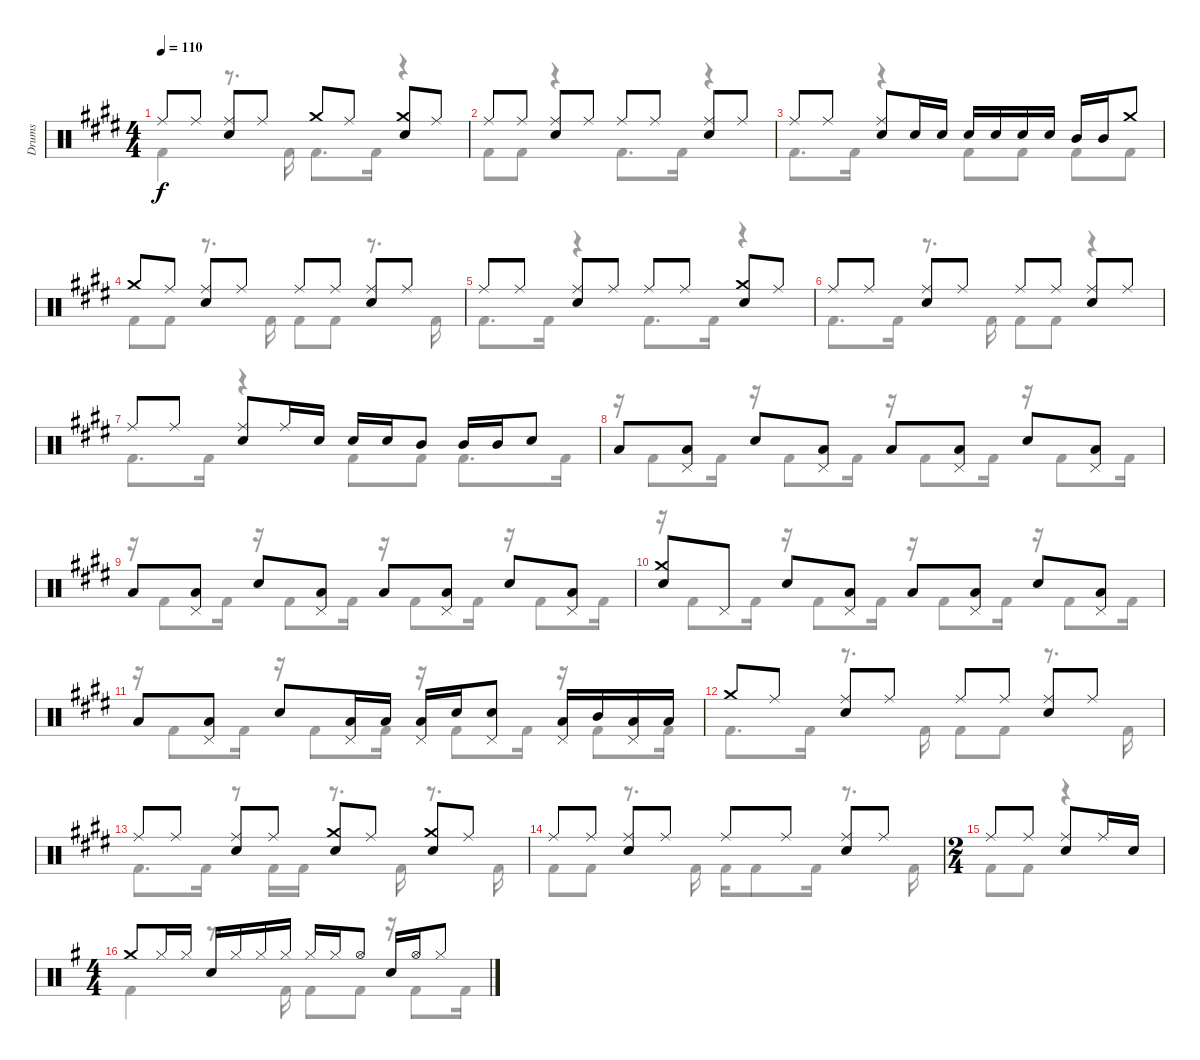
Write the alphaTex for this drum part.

\track ("Drums" "Drums") {instrument percussion}
\staff {score}
\articulation defaults
\voice
\ts (4 4)
\tempo 110
\clef neutral
\ks e "Ride (middle)".8{dy f} "Ride (middle)".8
("Ride (middle)" "Snare (hit) 2").8 "Ride (middle)".8 "Crash medium (hit)".8 "Ride (middle)".8 ("Crash medium (hit)" "Snare (hit) 2").8 "Ride (middle)".8 |
"Ride (middle)".8 "Ride (middle)".8 ("Ride (middle)" "Snare (hit) 2").8 "Ride (middle)".8 "Ride (middle)".8 "Ride (middle)".8 ("Ride (middle)" "Snare (hit) 2").8 "Ride (middle)".8 |
"Ride (middle)".8 "Ride (middle)".8 ("Ride (middle)" "Snare (hit) 2").8 "Snare (hit) 2".16 "Snare (hit) 2".16 "Snare (hit) 2".16 "Snare (hit) 2".16 "Snare (hit) 2".16 "Snare (hit) 2".16 "Mid Tom (hit)".16 "Mid Tom (hit)".16 "Crash medium (hit)".8 |
"Crash medium (hit)".8 "Ride (middle)".8 ("Ride (middle)" "Snare (hit) 2").8 "Ride (middle)".8 "Ride (middle)".8 "Ride (middle)".8 ("Ride (middle)" "Snare (hit) 2").8 "Ride (middle)".8 |
"Ride (middle)".8 "Ride (middle)".8 ("Ride (middle)" "Snare (hit) 2").8 "Ride (middle)".8 "Ride (middle)".8 "Ride (middle)".8 ("Crash medium (hit)" "Snare (hit) 2").8 "Ride (middle)".8 |
"Ride (middle)".8 "Ride (middle)".8 ("Ride (middle)" "Snare (hit) 2").8 "Ride (middle)".8 "Ride (middle)".8 "Ride (middle)".8 ("Ride (middle)" "Snare (hit) 2").8 "Ride (middle)".8 |
"Ride (middle)".8 "Ride (middle)".8 ("Ride (middle)" "Snare (hit) 2").8 "Ride (middle)".16 "Snare (hit) 2".16 "Snare (hit) 2".16 "Snare (hit) 2".16 "Mid Tom (hit)".8 "Mid Tom (hit)".16 "Mid Tom (hit)".16 "Snare (hit) 2".8 |
"Low Tom (hit)".8 ("Low Tom (hit)" "Pedal Hi-Hat (hit)").8 "Snare (hit) 2".8 ("Low Tom (hit)" "Pedal Hi-Hat (hit)").8 "Low Tom (hit)".8 ("Low Tom (hit)" "Pedal Hi-Hat (hit)").8 "Snare (hit) 2".8 ("Low Tom (hit)" "Pedal Hi-Hat (hit)").8 |
"Low Tom (hit)".8 ("Low Tom (hit)" "Pedal Hi-Hat (hit)").8 "Snare (hit) 2".8 ("Low Tom (hit)" "Pedal Hi-Hat (hit)").8 "Low Tom (hit)".8 ("Low Tom (hit)" "Pedal Hi-Hat (hit)").8 "Snare (hit) 2".8 ("Low Tom (hit)" "Pedal Hi-Hat (hit)").8 |
("Crash medium (hit)" "Snare (hit) 2").8 "Pedal Hi-Hat (hit)".8 "Snare (hit) 2".8 ("Low Tom (hit)" "Pedal Hi-Hat (hit)").8 "Low Tom (hit)".8 ("Low Tom (hit)" "Pedal Hi-Hat (hit)").8 "Snare (hit) 2".8 ("Low Tom (hit)" "Pedal Hi-Hat (hit)").8 |
"Low Tom (hit)".8 ("Low Tom (hit)" "Pedal Hi-Hat (hit)").8 "Snare (hit) 2".8 ("Low Tom (hit)" "Pedal Hi-Hat (hit)").16 "Low Tom (hit)".16 ("Low Tom (hit)" "Pedal Hi-Hat (hit)").16 "Snare (hit) 2".16 ("Snare (hit) 2" "Pedal Hi-Hat (hit)").8 ("Low Tom (hit)" "Pedal Hi-Hat (hit)").16 "Mid Tom (hit)".16 ("Low Tom (hit)" "Pedal Hi-Hat (hit)").16 "Low Tom (hit)".16 |
"Crash medium (hit)".8 "Ride (middle)".8 ("Ride (middle)" "Snare (hit) 2").8 "Ride (middle)".8 "Ride (middle)".8 "Ride (middle)".8 ("Ride (middle)" "Snare (hit) 2").8 "Ride (middle)".8 |
"Ride (middle)".8 "Ride (middle)".8 ("Ride (middle)" "Snare (hit) 2").8 "Ride (middle)".8 ("Crash medium (hit)" "Snare (hit) 2").8 "Ride (middle)".8 ("Crash medium (hit)" "Snare (hit) 2").8 "Ride (middle)".8 |
"Ride (middle)".8 "Ride (middle)".8 ("Ride (middle)" "Snare (hit) 2").8 "Ride (middle)".8 "Ride (middle)".8 "Ride (middle)".8 ("Ride (middle)" "Snare (hit) 2").8 "Ride (middle)".8 |
\ts (2 4)
"Ride (middle)".8 "Ride (middle)".8 ("Ride (middle)" "Snare (hit) 2").8 "Ride (middle)".16 "Snare (hit) 2".16 |
\ts (4 4)
\ks g "Crash medium (hit)".8 "Hi-Hat (closed)".16 "Hi-Hat (closed)".16 "Snare (hit) 2".16 "Hi-Hat (closed)".16 "Hi-Hat (closed)".16 "Hi-Hat (closed)".16 "Hi-Hat (closed)".16 "Hi-Hat (closed)".16 "Hi-Hat (open)".8 "Snare (hit) 2".16 "Hi-Hat (open)".16 "Hi-Hat (closed)".8
\voice
\clef neutral
\ottava regular
\simile none
\ks e "Kick (hit) 2".4{dy f}
r.8{d} "Kick (hit) 2".16 "Kick (hit) 2".8{d} "Kick (hit) 2".16 r.4 |
"Kick (hit) 2".8 "Kick (hit) 2".8 r.4 "Kick (hit) 2".8{d} "Kick (hit) 2".16 r.4 |
"Kick (hit) 2".8{d} "Kick (hit) 2".16 r.4 "Kick (hit) 2".8 "Kick (hit) 2".8 "Kick (hit) 2".8 "Kick (hit) 2".8 |
"Kick (hit) 2".8 "Kick (hit) 2".8 r.8{d} "Kick (hit) 2".16 "Kick (hit) 2".8 "Kick (hit) 2".8 r.8{d} "Kick (hit) 2".16 |
"Kick (hit) 2".8{d} "Kick (hit) 2".16 r.4 "Kick (hit) 2".8{d} "Kick (hit) 2".16 r.4 |
"Kick (hit) 2".8{d} "Kick (hit) 2".16 r.8{d} "Kick (hit) 2".16 "Kick (hit) 2".8 "Kick (hit) 2".8 r.4 |
"Kick (hit) 2".8{d} "Kick (hit) 2".16 r.4 "Kick (hit) 2".8 "Kick (hit) 2".8 "Kick (hit) 2".8{d} "Kick (hit) 2".16 |
r.16 "Kick (hit) 2".8 "Kick (hit) 2".16 r.16 "Kick (hit) 2".8 "Kick (hit) 2".16 r.16 "Kick (hit) 2".8 "Kick (hit) 2".16 r.16 "Kick (hit) 2".8 "Kick (hit) 2".16 |
r.16 "Kick (hit) 2".8 "Kick (hit) 2".16 r.16 "Kick (hit) 2".8 "Kick (hit) 2".16 r.16 "Kick (hit) 2".8 "Kick (hit) 2".16 r.16 "Kick (hit) 2".8 "Kick (hit) 2".16 |
r.16 "Kick (hit) 2".8 "Kick (hit) 2".16 r.16 "Kick (hit) 2".8 "Kick (hit) 2".16 r.16 "Kick (hit) 2".8 "Kick (hit) 2".16 r.16 "Kick (hit) 2".8 "Kick (hit) 2".16 |
r.16 "Kick (hit) 2".8 "Kick (hit) 2".16 r.16 "Kick (hit) 2".8 "Kick (hit) 2".16 r.16 "Kick (hit) 2".8 "Kick (hit) 2".16 r.16 "Kick (hit) 2".8 "Kick (hit) 2".16 |
"Kick (hit) 2".8{d} "Kick (hit) 2".16 r.8{d} "Kick (hit) 2".16 "Kick (hit) 2".8 "Kick (hit) 2".8 r.8{d} "Kick (hit) 2".16 |
"Kick (hit) 2".8{d} "Kick (hit) 2".16 r.8 "Kick (hit) 2".16 "Kick (hit) 2".16 r.8{d} "Kick (hit) 2".16 r.8{d} "Kick (hit) 2".16 |
"Kick (hit) 2".8 "Kick (hit) 2".8 r.8{d} "Kick (hit) 2".16 "Kick (hit) 2".16 "Kick (hit) 2".8 "Kick (hit) 2".16 r.8{d} "Kick (hit) 2".16 |
"Kick (hit) 2".8 "Kick (hit) 2".8 r.4 |
\ks g "Kick (hit) 2".4
r.8{d} "Kick (hit) 2".16 "Kick (hit) 2".8 "Kick (hit) 2".8 r.16 "Kick (hit) 2".8 "Kick (hit) 2".16
